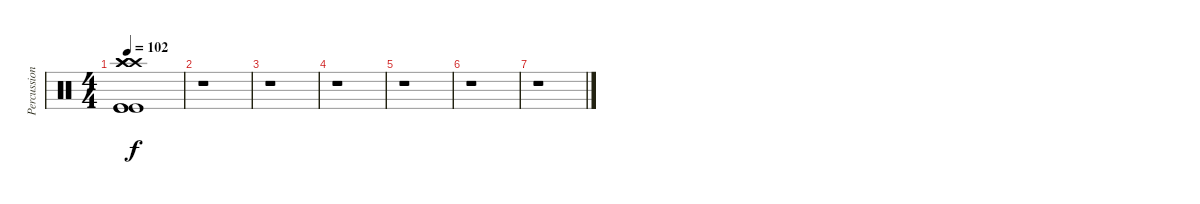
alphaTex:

\track ("Percussion (David)" "Percussion") {instrument percussion}
\staff {score}
\articulation defaults
\ts (4 4)
\tempo 102
\clef neutral
\ks c
("Kick (hit)" "Kick (hit)" "Kick (hit)" "Crash high (hit)" "Crash high (hit)" "Crash high (hit)").1{dy f} |
r.1 |
r.1 |
r.1 |
r.1 |
r.1 |
r.1
